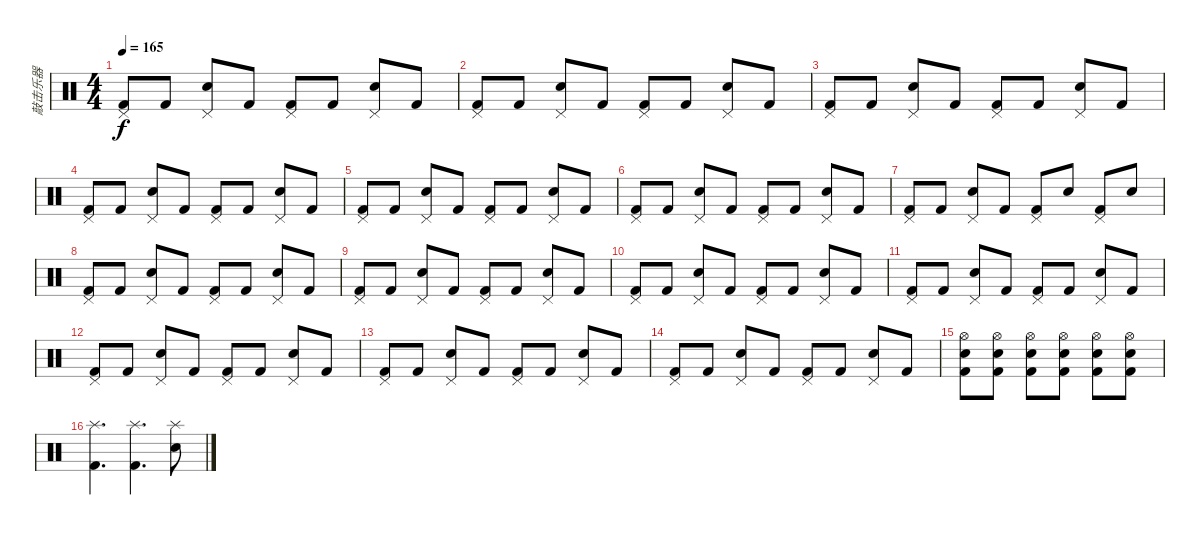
\track ("敲击乐器" "敲击乐器") {instrument percussion}
\staff {score}
\articulation defaults
\ts (4 4)
\tempo 165
\clef neutral
\ks c
("Kick (hit) 2" "Pedal Hi-Hat (hit)").8{dy f} "Kick (hit) 2".8 ("Snare (hit) 2" "Pedal Hi-Hat (hit)").8 "Kick (hit) 2".8 ("Kick (hit) 2" "Pedal Hi-Hat (hit)").8 "Kick (hit) 2".8 ("Snare (hit) 2" "Pedal Hi-Hat (hit)").8 "Kick (hit) 2".8 |
("Kick (hit) 2" "Pedal Hi-Hat (hit)").8 "Kick (hit) 2".8 ("Snare (hit) 2" "Pedal Hi-Hat (hit)").8 "Kick (hit) 2".8 ("Kick (hit) 2" "Pedal Hi-Hat (hit)").8 "Kick (hit) 2".8 ("Snare (hit) 2" "Pedal Hi-Hat (hit)").8 "Kick (hit) 2".8 |
("Kick (hit) 2" "Pedal Hi-Hat (hit)").8 "Kick (hit) 2".8 ("Snare (hit) 2" "Pedal Hi-Hat (hit)").8 "Kick (hit) 2".8 ("Kick (hit) 2" "Pedal Hi-Hat (hit)").8 "Kick (hit) 2".8 ("Snare (hit) 2" "Pedal Hi-Hat (hit)").8 "Kick (hit) 2".8 |
("Kick (hit) 2" "Pedal Hi-Hat (hit)").8 "Kick (hit) 2".8 ("Snare (hit) 2" "Pedal Hi-Hat (hit)").8 "Kick (hit) 2".8 ("Kick (hit) 2" "Pedal Hi-Hat (hit)").8 "Kick (hit) 2".8 ("Snare (hit) 2" "Pedal Hi-Hat (hit)").8 "Kick (hit) 2".8 |
("Kick (hit) 2" "Pedal Hi-Hat (hit)").8 "Kick (hit) 2".8 ("Snare (hit) 2" "Pedal Hi-Hat (hit)").8 "Kick (hit) 2".8 ("Kick (hit) 2" "Pedal Hi-Hat (hit)").8 "Kick (hit) 2".8 ("Snare (hit) 2" "Pedal Hi-Hat (hit)").8 "Kick (hit) 2".8 |
("Kick (hit) 2" "Pedal Hi-Hat (hit)").8 "Kick (hit) 2".8 ("Snare (hit) 2" "Pedal Hi-Hat (hit)").8 "Kick (hit) 2".8 ("Kick (hit) 2" "Pedal Hi-Hat (hit)").8 "Kick (hit) 2".8 ("Snare (hit) 2" "Pedal Hi-Hat (hit)").8 "Kick (hit) 2".8 |
("Kick (hit) 2" "Pedal Hi-Hat (hit)").8 "Kick (hit) 2".8 ("Snare (hit) 2" "Pedal Hi-Hat (hit)").8 "Kick (hit) 2".8 ("Kick (hit) 2" "Pedal Hi-Hat (hit)").8 "Snare (hit) 2".8 ("Kick (hit) 2" "Pedal Hi-Hat (hit)").8 "Snare (hit) 2".8 |
("Kick (hit) 2" "Pedal Hi-Hat (hit)").8 "Kick (hit) 2".8 ("Snare (hit) 2" "Pedal Hi-Hat (hit)").8 "Kick (hit) 2".8 ("Kick (hit) 2" "Pedal Hi-Hat (hit)").8 "Kick (hit) 2".8 ("Snare (hit) 2" "Pedal Hi-Hat (hit)").8 "Kick (hit) 2".8 |
("Kick (hit) 2" "Pedal Hi-Hat (hit)").8 "Kick (hit) 2".8 ("Snare (hit) 2" "Pedal Hi-Hat (hit)").8 "Kick (hit) 2".8 ("Kick (hit) 2" "Pedal Hi-Hat (hit)").8 "Kick (hit) 2".8 ("Snare (hit) 2" "Pedal Hi-Hat (hit)").8 "Kick (hit) 2".8 |
("Kick (hit) 2" "Pedal Hi-Hat (hit)").8 "Kick (hit) 2".8 ("Snare (hit) 2" "Pedal Hi-Hat (hit)").8 "Kick (hit) 2".8 ("Kick (hit) 2" "Pedal Hi-Hat (hit)").8 "Kick (hit) 2".8 ("Snare (hit) 2" "Pedal Hi-Hat (hit)").8 "Kick (hit) 2".8 |
("Kick (hit) 2" "Pedal Hi-Hat (hit)").8 "Kick (hit) 2".8 ("Snare (hit) 2" "Pedal Hi-Hat (hit)").8 "Kick (hit) 2".8 ("Kick (hit) 2" "Pedal Hi-Hat (hit)").8 "Kick (hit) 2".8 ("Snare (hit) 2" "Pedal Hi-Hat (hit)").8 "Kick (hit) 2".8 |
("Kick (hit) 2" "Pedal Hi-Hat (hit)").8 "Kick (hit) 2".8 ("Snare (hit) 2" "Pedal Hi-Hat (hit)").8 "Kick (hit) 2".8 ("Kick (hit) 2" "Pedal Hi-Hat (hit)").8 "Kick (hit) 2".8 ("Snare (hit) 2" "Pedal Hi-Hat (hit)").8 "Kick (hit) 2".8 |
("Kick (hit) 2" "Pedal Hi-Hat (hit)").8 "Kick (hit) 2".8 ("Snare (hit) 2" "Pedal Hi-Hat (hit)").8 "Kick (hit) 2".8 ("Kick (hit) 2" "Pedal Hi-Hat (hit)").8 "Kick (hit) 2".8 ("Snare (hit) 2" "Pedal Hi-Hat (hit)").8 "Kick (hit) 2".8 |
("Kick (hit) 2" "Pedal Hi-Hat (hit)").8 "Kick (hit) 2".8 ("Snare (hit) 2" "Pedal Hi-Hat (hit)").8 "Kick (hit) 2".8 ("Kick (hit) 2" "Pedal Hi-Hat (hit)").8 "Kick (hit) 2".8 ("Snare (hit) 2" "Pedal Hi-Hat (hit)").8 "Kick (hit) 2".8 |
("Kick (hit) 2" "Snare (hit) 2" "Hi-Hat (open)").8 ("Kick (hit) 2" "Snare (hit) 2" "Hi-Hat (open)").8 ("Kick (hit) 2" "Snare (hit) 2" "Hi-Hat (open)").8 ("Kick (hit) 2" "Snare (hit) 2" "Hi-Hat (open)").8 ("Kick (hit) 2" "Snare (hit) 2" "Hi-Hat (open)").8 ("Kick (hit) 2" "Snare (hit) 2" "Hi-Hat (open)").8 |
("Kick (hit) 2" "Splash (hit)").4{d} ("Kick (hit) 2" "Splash (hit)").4{d} ("Snare (hit) 2" "Splash (hit)").8
